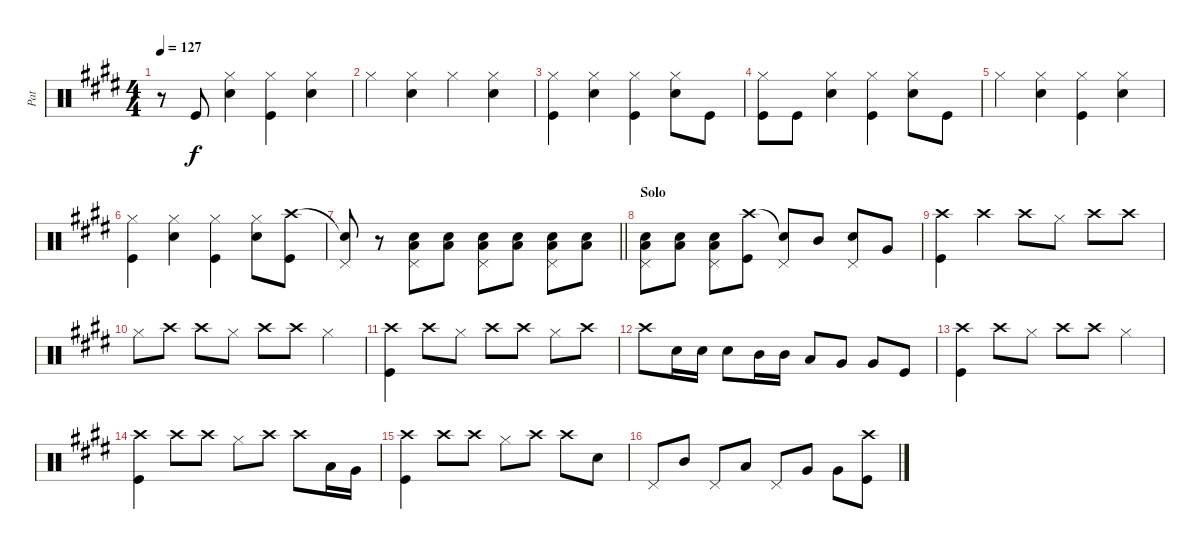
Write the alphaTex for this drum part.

\track ("Pat" "Pat") {instrument percussion}
\staff {score}
\articulation defaults
\ts (4 4)
\tempo 127
\clef neutral
\ks e
r.8{dy f} "Kick (hit)".8 ("Hi-Hat (closed)" "Snare (hit) 2").4 ("Hi-Hat (closed)" "Kick (hit)").4 ("Hi-Hat (closed)" "Snare (hit) 2").4 |
"Hi-Hat (closed)".4 ("Hi-Hat (closed)" "Snare (hit) 2").4 "Hi-Hat (closed)".4 ("Hi-Hat (closed)" "Snare (hit) 2").4 |
("Hi-Hat (closed)" "Kick (hit)").4 ("Hi-Hat (closed)" "Snare (hit) 2").4 ("Hi-Hat (closed)" "Kick (hit)").4 ("Hi-Hat (closed)" "Snare (hit) 2").8 "Kick (hit)".8 |
("Hi-Hat (closed)" "Kick (hit)").8 "Kick (hit)".8 ("Hi-Hat (closed)" "Snare (hit) 2").4 ("Hi-Hat (closed)" "Kick (hit)").4 ("Hi-Hat (closed)" "Snare (hit) 2").8 "Kick (hit)".8 |
"Hi-Hat (closed)".4 ("Hi-Hat (closed)" "Snare (hit) 2").4 ("Hi-Hat (closed)" "Kick (hit)").4 ("Hi-Hat (closed)" "Snare (hit) 2").4 |
("Hi-Hat (closed)" "Kick (hit)").4 ("Hi-Hat (closed)" "Snare (hit) 2").4 ("Hi-Hat (closed)" "Kick (hit)").4 ("Hi-Hat (closed)" "Snare (hit) 2").8 ("Crash high (hit)" "Kick (hit)").8 |
\barLineRight lightlight
("Snare (hit)"{t} "Pedal Hi-Hat (hit)").8 r.8 ("Snare (hit) 2" "Low Tom (hit)" "Pedal Hi-Hat (hit)").8 ("Snare (hit) 2" "Low Tom (hit)").8 ("Snare (hit) 2" "Low Tom (hit)" "Pedal Hi-Hat (hit)").8 ("Snare (hit) 2" "Low Tom (hit)").8 ("Snare (hit) 2" "Low Tom (hit)" "Pedal Hi-Hat (hit)").8 ("Snare (hit) 2" "Low Tom (hit)").8 |
\section ("" "Solo")
("Snare (hit) 2" "Low Tom (hit)" "Pedal Hi-Hat (hit)").8 ("Snare (hit) 2" "Low Tom (hit)").8 ("Snare (hit) 2" "Low Tom (hit)" "Pedal Hi-Hat (hit)").8 ("Crash high (hit)" "Kick (hit)").8 ("Snare (hit)"{t} "Pedal Hi-Hat (hit)").8 "Mid Tom (hit)".8 ("Snare (hit) 2" "Pedal Hi-Hat (hit)").8 "Very Low Tom (hit)".8 |
("Crash high (hit)" "Kick (hit)").4 "Crash high (hit)".4 "Crash high (hit)".8 "Hi-Hat (closed)".8 "Crash high (hit)".8 "Crash high (hit)".8 |
"Hi-Hat (closed)".8 "Crash high (hit)".8 "Crash high (hit)".8 "Hi-Hat (closed)".8 "Crash high (hit)".8 "Crash high (hit)".8 "Hi-Hat (closed)".4 |
("Crash high (hit)" "Kick (hit)").4 "Crash high (hit)".8 "Hi-Hat (closed)".8 "Crash high (hit)".8 "Crash high (hit)".8 "Hi-Hat (closed)".8 "Crash high (hit)".8 |
"Crash high (hit)".8 "Snare (hit) 2".16 "Snare (hit) 2".16 "Snare (hit) 2".8 "Mid Tom (hit)".16 "Mid Tom (hit)".16 "Low Tom (hit)".8 "Very Low Tom (hit)".8 "Very Low Tom (hit)".8 "Kick (hit)".8 |
("Crash high (hit)" "Kick (hit)").4 "Crash high (hit)".8 "Hi-Hat (closed)".8 "Crash high (hit)".8 "Crash high (hit)".8 "Hi-Hat (closed)".4 |
("Crash high (hit)" "Kick (hit)").4 "Crash high (hit)".8 "Crash high (hit)".8 "Hi-Hat (closed)".8 "Crash high (hit)".8 "Crash high (hit)".8 "Low Tom (hit)".16 "Very Low Tom (hit)".16 |
("Crash high (hit)" "Kick (hit)").4 "Crash high (hit)".8 "Crash high (hit)".8 "Hi-Hat (closed)".8 "Crash high (hit)".8 "Crash high (hit)".8 "Snare (hit) 2".8 |
"Pedal Hi-Hat (hit)".8 "Mid Tom (hit)".8 "Pedal Hi-Hat (hit)".8 "Low Tom (hit)".8 "Pedal Hi-Hat (hit)".8 "Very Low Tom (hit)".8 "Very Low Tom (hit)".8 ("Kick (hit)" "Crash high (hit)").8
